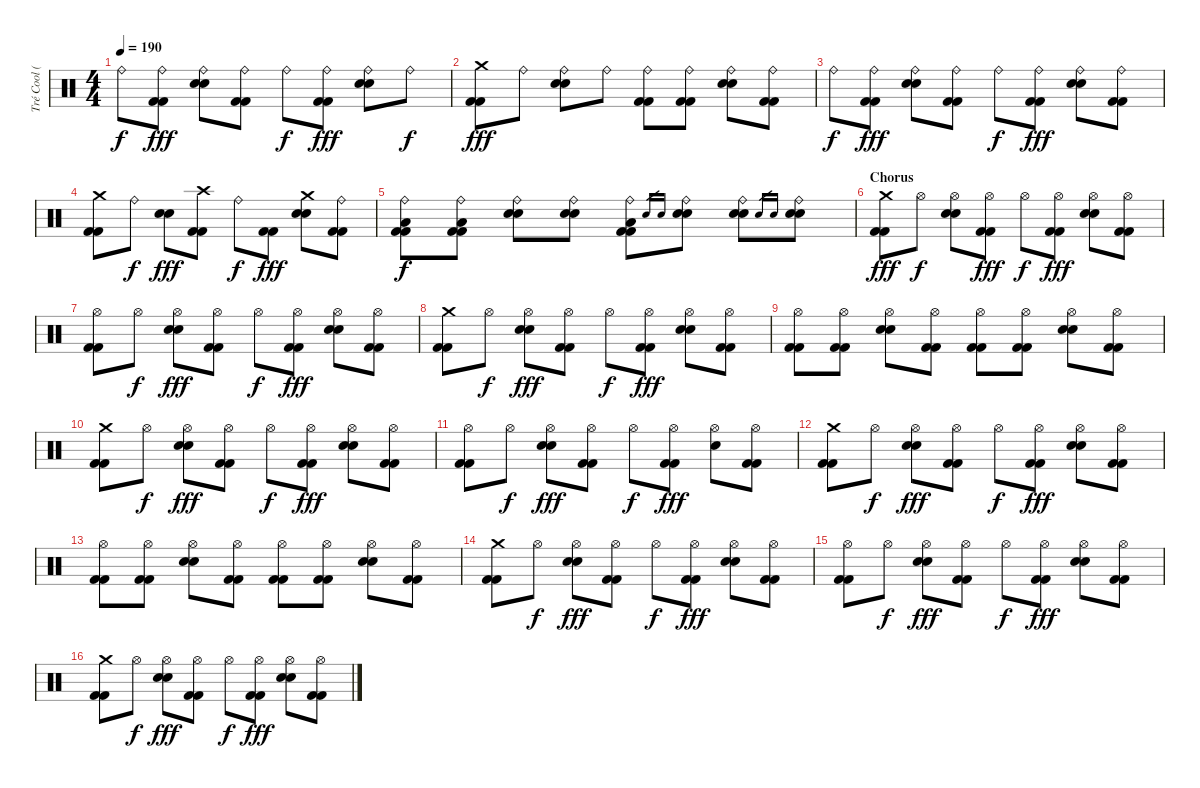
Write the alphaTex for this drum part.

\track ("Tré Cool (Drums)" "Tré Cool (") {instrument percussion}
\staff {score}
\articulation defaults
\ts (4 4)
\tempo 190
\clef neutral
\ks c "Ride (bell)".8{dy f}
("Kick (hit) 2" "Kick (hit) 2" "Ride (bell)").8{dy fff} ("Electric Snare (hit)" "Electric Snare (hit)" "Ride (bell)").8 ("Kick (hit) 2" "Kick (hit) 2" "Ride (bell)").8 "Ride (bell)".8{dy f} ("Kick (hit) 2" "Kick (hit) 2" "Ride (bell)").8{dy fff} ("Electric Snare (hit)" "Electric Snare (hit)" "Ride (bell)").8 "Ride (bell)".8{dy f} |
("Kick (hit) 2" "Kick (hit) 2" "Crash medium (hit)").8{dy fff} "Ride (bell)".8 ("Electric Snare (hit)" "Electric Snare (hit)" "Ride (bell)").8 "Ride (bell)".8 ("Kick (hit) 2" "Kick (hit) 2" "Ride (bell)").8 ("Kick (hit) 2" "Kick (hit) 2" "Ride (bell)").8 ("Electric Snare (hit)" "Electric Snare (hit)" "Ride (bell)").8 ("Kick (hit) 2" "Kick (hit) 2" "Ride (bell)").8 |
"Ride (bell)".8{dy f} ("Kick (hit) 2" "Kick (hit) 2" "Ride (bell)").8{dy fff} ("Electric Snare (hit)" "Electric Snare (hit)" "Ride (bell)").8 ("Kick (hit) 2" "Kick (hit) 2" "Ride (bell)").8 "Ride (bell)".8{dy f} ("Kick (hit) 2" "Kick (hit) 2" "Ride (bell)").8{dy fff} ("Electric Snare (hit)" "Electric Snare (hit)" "Ride (bell)").8 ("Kick (hit) 2" "Kick (hit) 2" "Ride (bell)").8 |
("Kick (hit) 2" "Kick (hit) 2" "Crash medium (hit)").8 "Ride (bell)".8{dy f} ("Electric Snare (hit)" "Electric Snare (hit)").8{dy fff} ("Kick (hit) 2" "Kick (hit) 2" "Crash high (hit)").8 "Ride (bell)".8{dy f} ("Kick (hit) 2" "Kick (hit) 2").8{dy fff} ("Electric Snare (hit)" "Electric Snare (hit)" "Crash medium (hit)").8 ("Kick (hit) 2" "Kick (hit) 2" "Ride (bell)").8 |
("Kick (hit) 2" "Kick (hit) 2" "Low Floor Tom (hit)" "Ride (bell)").8{dy f} ("Kick (hit) 2" "Kick (hit) 2" "Low Floor Tom (hit)" "Ride (bell)").8 ("Electric Snare (hit)" "Electric Snare (hit)" "Ride (bell)").8 ("Electric Snare (hit)" "Electric Snare (hit)" "Ride (bell)").8 ("Kick (hit) 2" "Kick (hit) 2" "Low Floor Tom (hit)" "Ride (bell)").8 "Electric Snare (hit)".16{gr} "Electric Snare (hit)".16{gr} ("Electric Snare (hit)" "Electric Snare (hit)" "Ride (bell)").8 ("Electric Snare (hit)" "Electric Snare (hit)" "Ride (bell)").8 "Electric Snare (hit)".16{gr} "Electric Snare (hit)".16{gr} ("Electric Snare (hit)" "Electric Snare (hit)" "Ride (bell)").8 |
\section ("" "Chorus")
("Kick (hit) 2" "Kick (hit) 2" "Crash medium (hit)").8{dy fff} "Hi-Hat (open)".8{dy f} ("Electric Snare (hit)" "Electric Snare (hit)" "Hi-Hat (open)").8 ("Kick (hit) 2" "Kick (hit) 2" "Hi-Hat (open)").8{dy fff} "Hi-Hat (open)".8{dy f} ("Kick (hit) 2" "Kick (hit) 2" "Hi-Hat (open)").8{dy fff} ("Electric Snare (hit)" "Electric Snare (hit)" "Hi-Hat (open)").8 ("Kick (hit) 2" "Kick (hit) 2" "Hi-Hat (open)").8 |
("Kick (hit) 2" "Kick (hit) 2" "Hi-Hat (open)").8 "Hi-Hat (open)".8{dy f} ("Electric Snare (hit)" "Electric Snare (hit)" "Hi-Hat (open)").8{dy fff} ("Kick (hit) 2" "Kick (hit) 2" "Hi-Hat (open)").8 "Hi-Hat (open)".8{dy f} ("Kick (hit) 2" "Kick (hit) 2" "Hi-Hat (open)").8{dy fff} ("Electric Snare (hit)" "Electric Snare (hit)" "Hi-Hat (open)").8 ("Kick (hit) 2" "Kick (hit) 2" "Hi-Hat (open)").8 |
("Kick (hit) 2" "Kick (hit) 2" "Crash medium (hit)").8 "Hi-Hat (open)".8{dy f} ("Electric Snare (hit)" "Electric Snare (hit)" "Hi-Hat (open)").8{dy fff} ("Kick (hit) 2" "Kick (hit) 2" "Hi-Hat (open)").8 "Hi-Hat (open)".8{dy f} ("Kick (hit) 2" "Kick (hit) 2" "Hi-Hat (open)").8{dy fff} ("Electric Snare (hit)" "Electric Snare (hit)" "Hi-Hat (open)").8 ("Kick (hit) 2" "Kick (hit) 2" "Hi-Hat (open)").8 |
("Kick (hit) 2" "Kick (hit) 2" "Hi-Hat (open)").8 ("Kick (hit) 2" "Kick (hit) 2" "Hi-Hat (open)").8 ("Electric Snare (hit)" "Electric Snare (hit)" "Hi-Hat (open)").8 ("Kick (hit) 2" "Kick (hit) 2" "Hi-Hat (open)").8 ("Kick (hit) 2" "Kick (hit) 2" "Hi-Hat (open)").8 ("Kick (hit) 2" "Kick (hit) 2" "Hi-Hat (open)").8 ("Electric Snare (hit)" "Electric Snare (hit)" "Hi-Hat (open)").8 ("Kick (hit) 2" "Kick (hit) 2" "Hi-Hat (open)").8 |
("Kick (hit) 2" "Kick (hit) 2" "Crash medium (hit)").8 "Hi-Hat (open)".8{dy f} ("Electric Snare (hit)" "Electric Snare (hit)" "Hi-Hat (open)").8{dy fff} ("Kick (hit) 2" "Kick (hit) 2" "Hi-Hat (open)").8 "Hi-Hat (open)".8{dy f} ("Kick (hit) 2" "Kick (hit) 2" "Hi-Hat (open)").8{dy fff} ("Electric Snare (hit)" "Electric Snare (hit)" "Hi-Hat (open)").8 ("Kick (hit) 2" "Kick (hit) 2" "Hi-Hat (open)").8 |
("Kick (hit) 2" "Kick (hit) 2" "Hi-Hat (open)").8 "Hi-Hat (open)".8{dy f} ("Electric Snare (hit)" "Electric Snare (hit)" "Hi-Hat (open)").8{dy fff} ("Kick (hit) 2" "Kick (hit) 2" "Hi-Hat (open)").8 "Hi-Hat (open)".8{dy f} ("Kick (hit) 2" "Kick (hit) 2" "Hi-Hat (open)").8{dy fff} ("Electric Snare (hit)" "Hi-Hat (open)").8 ("Kick (hit) 2" "Kick (hit) 2" "Hi-Hat (open)").8 |
("Kick (hit) 2" "Kick (hit) 2" "Crash medium (hit)").8 "Hi-Hat (open)".8{dy f} ("Electric Snare (hit)" "Electric Snare (hit)" "Hi-Hat (open)").8{dy fff} ("Kick (hit) 2" "Kick (hit) 2" "Hi-Hat (open)").8 "Hi-Hat (open)".8{dy f} ("Kick (hit) 2" "Kick (hit) 2" "Hi-Hat (open)").8{dy fff} ("Electric Snare (hit)" "Electric Snare (hit)" "Hi-Hat (open)").8 ("Kick (hit) 2" "Kick (hit) 2" "Hi-Hat (open)").8 |
("Kick (hit) 2" "Kick (hit) 2" "Hi-Hat (open)").8 ("Kick (hit) 2" "Kick (hit) 2" "Hi-Hat (open)").8 ("Electric Snare (hit)" "Electric Snare (hit)" "Hi-Hat (open)").8 ("Kick (hit) 2" "Kick (hit) 2" "Hi-Hat (open)").8 ("Kick (hit) 2" "Kick (hit) 2" "Hi-Hat (open)").8 ("Kick (hit) 2" "Kick (hit) 2" "Hi-Hat (open)").8 ("Electric Snare (hit)" "Electric Snare (hit)" "Hi-Hat (open)").8 ("Kick (hit) 2" "Kick (hit) 2" "Hi-Hat (open)").8 |
("Kick (hit) 2" "Kick (hit) 2" "Crash medium (hit)").8 "Hi-Hat (open)".8{dy f} ("Electric Snare (hit)" "Electric Snare (hit)" "Hi-Hat (open)").8{dy fff} ("Kick (hit) 2" "Kick (hit) 2" "Hi-Hat (open)").8 "Hi-Hat (open)".8{dy f} ("Kick (hit) 2" "Kick (hit) 2" "Hi-Hat (open)").8{dy fff} ("Electric Snare (hit)" "Electric Snare (hit)" "Hi-Hat (open)").8 ("Kick (hit) 2" "Kick (hit) 2" "Hi-Hat (open)").8 |
("Kick (hit) 2" "Kick (hit) 2" "Hi-Hat (open)").8 "Hi-Hat (open)".8{dy f} ("Electric Snare (hit)" "Electric Snare (hit)" "Hi-Hat (open)").8{dy fff} ("Kick (hit) 2" "Kick (hit) 2" "Hi-Hat (open)").8 "Hi-Hat (open)".8{dy f} ("Kick (hit) 2" "Kick (hit) 2" "Hi-Hat (open)").8{dy fff} ("Electric Snare (hit)" "Electric Snare (hit)" "Hi-Hat (open)").8 ("Kick (hit) 2" "Kick (hit) 2" "Hi-Hat (open)").8 |
("Kick (hit) 2" "Kick (hit) 2" "Crash medium (hit)").8 "Hi-Hat (open)".8{dy f} ("Electric Snare (hit)" "Electric Snare (hit)" "Hi-Hat (open)").8{dy fff} ("Kick (hit) 2" "Kick (hit) 2" "Hi-Hat (open)").8 "Hi-Hat (open)".8{dy f} ("Kick (hit) 2" "Kick (hit) 2" "Hi-Hat (open)").8{dy fff} ("Electric Snare (hit)" "Electric Snare (hit)" "Hi-Hat (open)").8 ("Kick (hit) 2" "Kick (hit) 2" "Hi-Hat (open)").8
